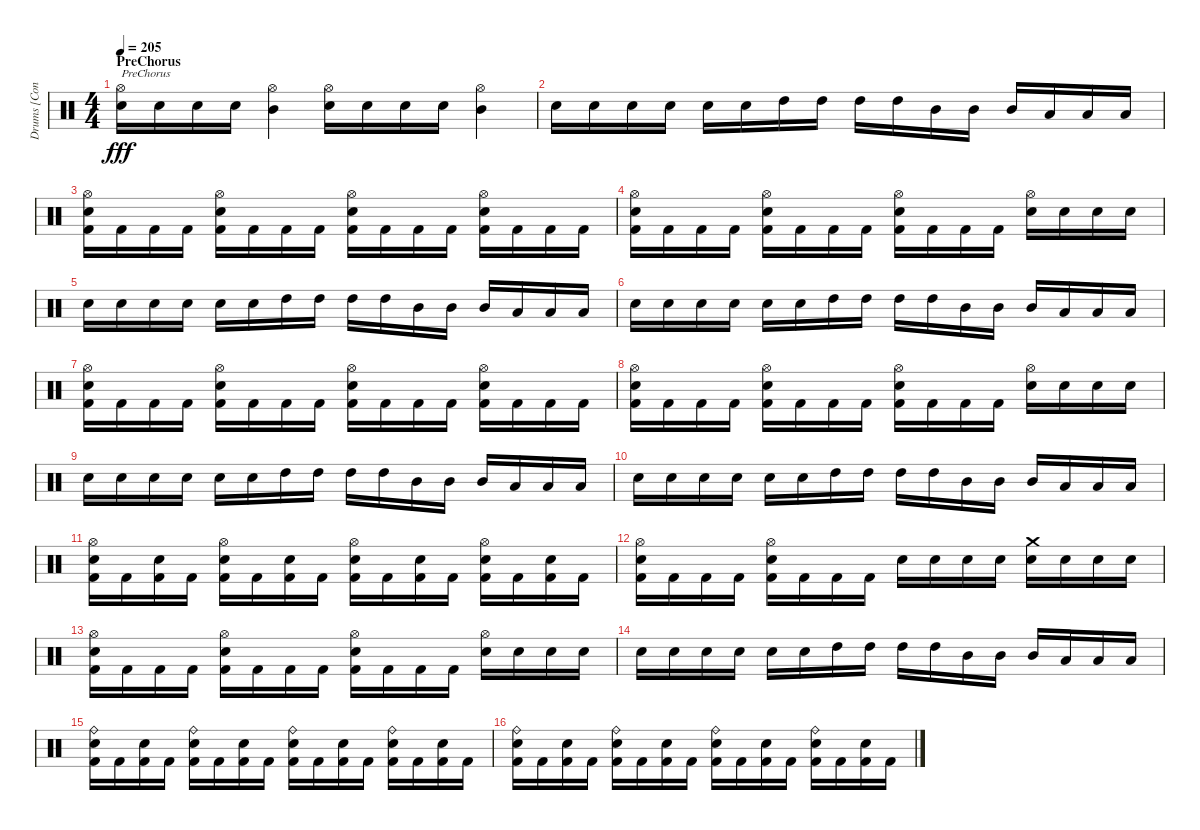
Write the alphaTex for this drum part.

\track ("Drums [Conny Peterson]" "Drums [Con") {instrument percussion}
\staff {score}
\articulation defaults
\ts (4 4)
\section ("" "PreChorus")
\tempo 205
\clef neutral
\ks c
("Hi-Hat (open)" "Electric Snare (hit)").16{txt "PreChorus" dy fff} "Electric Snare (hit)".16 "Electric Snare (hit)".16 "Electric Snare (hit)".16 ("Hi-Hat (open)" "Mid Tom (hit)").4 ("Hi-Hat (open)" "Electric Snare (hit)").16 "Electric Snare (hit)".16 "Electric Snare (hit)".16 "Electric Snare (hit)".16 ("Hi-Hat (open)" "Mid Tom (hit)").4 |
"Electric Snare (hit)".16 "Electric Snare (hit)".16 "Electric Snare (hit)".16 "Electric Snare (hit)".16 "Electric Snare (hit)".16 "Electric Snare (hit)".16 "High Tom (hit)".16 "High Tom (hit)".16 "High Tom (hit)".16 "High Tom (hit)".16 "Mid Tom (hit)".16 "Mid Tom (hit)".16 "Mid Tom (hit)".16 "Low Tom (hit)".16 "Low Tom (hit)".16 "Low Tom (hit)".16 |
("Hi-Hat (open)" "Electric Snare (hit)" "Kick (hit) 2").16 "Kick (hit) 2".16 "Kick (hit) 2".16 "Kick (hit) 2".16 ("Hi-Hat (open)" "Electric Snare (hit)" "Kick (hit) 2").16 "Kick (hit) 2".16 "Kick (hit) 2".16 "Kick (hit) 2".16 ("Hi-Hat (open)" "Electric Snare (hit)" "Kick (hit) 2").16 "Kick (hit) 2".16 "Kick (hit) 2".16 "Kick (hit) 2".16 ("Hi-Hat (open)" "Electric Snare (hit)" "Kick (hit) 2").16 "Kick (hit) 2".16 "Kick (hit) 2".16 "Kick (hit) 2".16 |
("Hi-Hat (open)" "Electric Snare (hit)" "Kick (hit) 2").16 "Kick (hit) 2".16 "Kick (hit) 2".16 "Kick (hit) 2".16 ("Hi-Hat (open)" "Electric Snare (hit)" "Kick (hit) 2").16 "Kick (hit) 2".16 "Kick (hit) 2".16 "Kick (hit) 2".16 ("Hi-Hat (open)" "Electric Snare (hit)" "Kick (hit) 2").16 "Kick (hit) 2".16 "Kick (hit) 2".16 "Kick (hit) 2".16 ("Hi-Hat (open)" "Electric Snare (hit)").16 "Electric Snare (hit)".16 "Electric Snare (hit)".16 "Electric Snare (hit)".16 |
"Electric Snare (hit)".16 "Electric Snare (hit)".16 "Electric Snare (hit)".16 "Electric Snare (hit)".16 "Electric Snare (hit)".16 "Electric Snare (hit)".16 "High Tom (hit)".16 "High Tom (hit)".16 "High Tom (hit)".16 "High Tom (hit)".16 "Mid Tom (hit)".16 "Mid Tom (hit)".16 "Mid Tom (hit)".16 "Low Tom (hit)".16 "Low Tom (hit)".16 "Low Tom (hit)".16 |
"Electric Snare (hit)".16 "Electric Snare (hit)".16 "Electric Snare (hit)".16 "Electric Snare (hit)".16 "Electric Snare (hit)".16 "Electric Snare (hit)".16 "High Tom (hit)".16 "High Tom (hit)".16 "High Tom (hit)".16 "High Tom (hit)".16 "Mid Tom (hit)".16 "Mid Tom (hit)".16 "Mid Tom (hit)".16 "Low Tom (hit)".16 "Low Tom (hit)".16 "Low Tom (hit)".16 |
("Hi-Hat (open)" "Electric Snare (hit)" "Kick (hit) 2").16 "Kick (hit) 2".16 "Kick (hit) 2".16 "Kick (hit) 2".16 ("Hi-Hat (open)" "Electric Snare (hit)" "Kick (hit) 2").16 "Kick (hit) 2".16 "Kick (hit) 2".16 "Kick (hit) 2".16 ("Hi-Hat (open)" "Electric Snare (hit)" "Kick (hit) 2").16 "Kick (hit) 2".16 "Kick (hit) 2".16 "Kick (hit) 2".16 ("Hi-Hat (open)" "Electric Snare (hit)" "Kick (hit) 2").16 "Kick (hit) 2".16 "Kick (hit) 2".16 "Kick (hit) 2".16 |
("Hi-Hat (open)" "Electric Snare (hit)" "Kick (hit) 2").16 "Kick (hit) 2".16 "Kick (hit) 2".16 "Kick (hit) 2".16 ("Hi-Hat (open)" "Electric Snare (hit)" "Kick (hit) 2").16 "Kick (hit) 2".16 "Kick (hit) 2".16 "Kick (hit) 2".16 ("Hi-Hat (open)" "Electric Snare (hit)" "Kick (hit) 2").16 "Kick (hit) 2".16 "Kick (hit) 2".16 "Kick (hit) 2".16 ("Hi-Hat (open)" "Electric Snare (hit)").16 "Electric Snare (hit)".16 "Electric Snare (hit)".16 "Electric Snare (hit)".16 |
"Electric Snare (hit)".16 "Electric Snare (hit)".16 "Electric Snare (hit)".16 "Electric Snare (hit)".16 "Electric Snare (hit)".16 "Electric Snare (hit)".16 "High Tom (hit)".16 "High Tom (hit)".16 "High Tom (hit)".16 "High Tom (hit)".16 "Mid Tom (hit)".16 "Mid Tom (hit)".16 "Mid Tom (hit)".16 "Low Tom (hit)".16 "Low Tom (hit)".16 "Low Tom (hit)".16 |
"Electric Snare (hit)".16 "Electric Snare (hit)".16 "Electric Snare (hit)".16 "Electric Snare (hit)".16 "Electric Snare (hit)".16 "Electric Snare (hit)".16 "High Tom (hit)".16 "High Tom (hit)".16 "High Tom (hit)".16 "High Tom (hit)".16 "Mid Tom (hit)".16 "Mid Tom (hit)".16 "Mid Tom (hit)".16 "Low Tom (hit)".16 "Low Tom (hit)".16 "Low Tom (hit)".16 |
("Hi-Hat (open)" "Electric Snare (hit)" "Kick (hit) 2").16 "Kick (hit) 2".16 ("Electric Snare (hit)" "Kick (hit) 2").16 "Kick (hit) 2".16 ("Hi-Hat (open)" "Electric Snare (hit)" "Kick (hit) 2").16 "Kick (hit) 2".16 ("Electric Snare (hit)" "Kick (hit) 2").16 "Kick (hit) 2".16 ("Hi-Hat (open)" "Electric Snare (hit)" "Kick (hit) 2").16 "Kick (hit) 2".16 ("Electric Snare (hit)" "Kick (hit) 2").16 "Kick (hit) 2".16 ("Hi-Hat (open)" "Electric Snare (hit)" "Kick (hit) 2").16 "Kick (hit) 2".16 ("Electric Snare (hit)" "Kick (hit) 2").16 "Kick (hit) 2".16 |
("Hi-Hat (open)" "Electric Snare (hit)" "Kick (hit) 2").16 "Kick (hit) 2".16 "Kick (hit) 2".16 "Kick (hit) 2".16 ("Hi-Hat (open)" "Electric Snare (hit)" "Kick (hit) 2").16 "Kick (hit) 2".16 "Kick (hit) 2".16 "Kick (hit) 2".16 "Electric Snare (hit)".16 "Electric Snare (hit)".16 "Electric Snare (hit)".16 "Electric Snare (hit)".16 ("Crash medium (hit)" "Electric Snare (hit)").16 "Electric Snare (hit)".16 "Electric Snare (hit)".16 "Electric Snare (hit)".16 |
("Hi-Hat (open)" "Electric Snare (hit)" "Kick (hit) 2").16 "Kick (hit) 2".16 "Kick (hit) 2".16 "Kick (hit) 2".16 ("Hi-Hat (open)" "Electric Snare (hit)" "Kick (hit) 2").16 "Kick (hit) 2".16 "Kick (hit) 2".16 "Kick (hit) 2".16 ("Hi-Hat (open)" "Electric Snare (hit)" "Kick (hit) 2").16 "Kick (hit) 2".16 "Kick (hit) 2".16 "Kick (hit) 2".16 ("Hi-Hat (open)" "Electric Snare (hit)").16 "Electric Snare (hit)".16 "Electric Snare (hit)".16 "Electric Snare (hit)".16 |
"Electric Snare (hit)".16 "Electric Snare (hit)".16 "Electric Snare (hit)".16 "Electric Snare (hit)".16 "Electric Snare (hit)".16 "Electric Snare (hit)".16 "High Tom (hit)".16 "High Tom (hit)".16 "High Tom (hit)".16 "High Tom (hit)".16 "Mid Tom (hit)".16 "Mid Tom (hit)".16 "Mid Tom (hit)".16 "Low Tom (hit)".16 "Low Tom (hit)".16 "Low Tom (hit)".16 |
("Ride (bell)" "Electric Snare (hit)" "Kick (hit) 2").16 "Kick (hit) 2".16 ("Electric Snare (hit)" "Kick (hit) 2").16 "Kick (hit) 2".16 ("Ride (bell)" "Electric Snare (hit)" "Kick (hit) 2").16 "Kick (hit) 2".16 ("Electric Snare (hit)" "Kick (hit) 2").16 "Kick (hit) 2".16 ("Ride (bell)" "Electric Snare (hit)" "Kick (hit) 2").16 "Kick (hit) 2".16 ("Electric Snare (hit)" "Kick (hit) 2").16 "Kick (hit) 2".16 ("Ride (bell)" "Electric Snare (hit)" "Kick (hit) 2").16 "Kick (hit) 2".16 ("Electric Snare (hit)" "Kick (hit) 2").16 "Kick (hit) 2".16 |
("Ride (bell)" "Electric Snare (hit)" "Kick (hit) 2").16 "Kick (hit) 2".16 ("Electric Snare (hit)" "Kick (hit) 2").16 "Kick (hit) 2".16 ("Ride (bell)" "Electric Snare (hit)" "Kick (hit) 2").16 "Kick (hit) 2".16 ("Electric Snare (hit)" "Kick (hit) 2").16 "Kick (hit) 2".16 ("Ride (bell)" "Electric Snare (hit)" "Kick (hit) 2").16 "Kick (hit) 2".16 ("Electric Snare (hit)" "Kick (hit) 2").16 "Kick (hit) 2".16 ("Ride (bell)" "Electric Snare (hit)" "Kick (hit) 2").16 "Kick (hit) 2".16 ("Electric Snare (hit)" "Kick (hit) 2").16 "Kick (hit) 2".16
